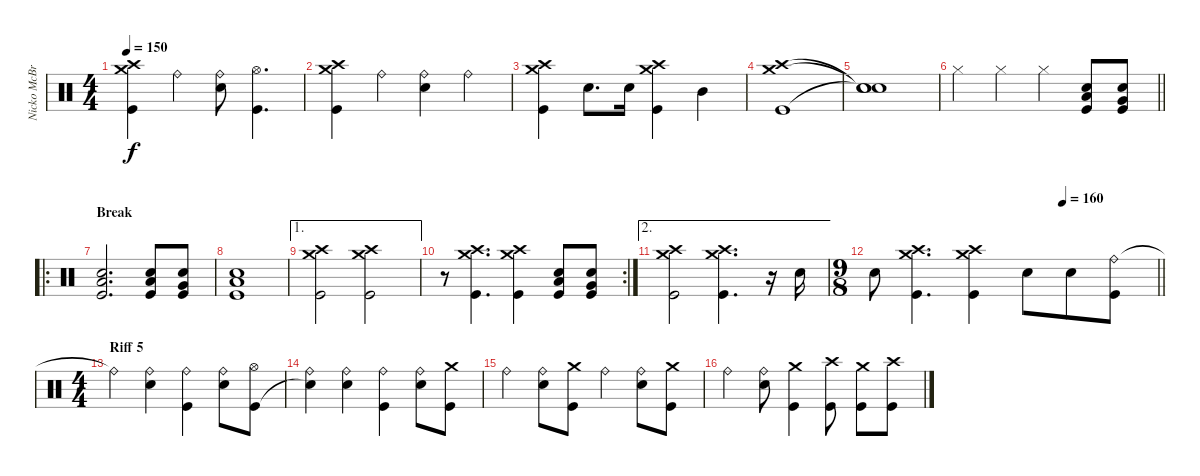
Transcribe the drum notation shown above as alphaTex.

\track ("Nicko McBrain" "Nicko McBr") {instrument percussion}
\staff {score}
\articulation defaults
\ts (4 4)
\tempo 150
\clef neutral
\ks c
("Crash medium (hit)" "Crash high (hit)" "Kick (hit)").4{dy f} "Ride (bell)".4 ("Ride (bell)" "Snare (hit) 2").8 ("Hi-Hat (open)" "Kick (hit)").4{d} |
("Crash medium (hit)" "Crash high (hit)" "Kick (hit)").4 "Ride (bell)".4 ("Ride (bell)" "Snare (hit) 2").4 "Ride (bell)".4 |
("Crash medium (hit)" "Crash high (hit)" "Kick (hit)").4 "Snare (hit) 2".8{d} "Snare (hit) 2".16 ("Crash medium (hit)" "Crash high (hit)" "Kick (hit)").4 "Mid Tom (hit)".4 |
("Crash medium (hit)" "Crash high (hit)" "Kick (hit)").1 |
("Snare (hit)"{t} "Snare (hit)"{t} "Snare (hit)"{t}).1 |
\barLineRight lightlight "Hi-Hat (closed)".4 "Hi-Hat (closed)".4 "Hi-Hat (closed)".4
("Low Floor Tom (hit)" "Snare (hit) 2" "Kick (hit)").8 ("Very Low Tom (hit)" "Snare (hit) 2" "Kick (hit)").8 |
\ro
\section ("" "Break")
("Low Floor Tom (hit)" "Snare (hit) 2" "Kick (hit)").2{d} ("Low Floor Tom (hit)" "Snare (hit) 2" "Kick (hit)").8 ("Very Low Tom (hit)" "Snare (hit) 2" "Kick (hit)").8 |
("Low Floor Tom (hit)" "Snare (hit) 2" "Kick (hit)").1 |
\ae 1
("Crash medium (hit)" "Crash high (hit)" "Kick (hit)").2 ("Crash medium (hit)" "Crash high (hit)" "Kick (hit)").2 |
\rc 2
r.8 ("Crash medium (hit)" "Crash high (hit)" "Kick (hit)").4{d} ("Crash medium (hit)" "Crash high (hit)" "Kick (hit)").4 ("Low Floor Tom (hit)" "Snare (hit) 2" "Kick (hit)").8 ("Very Low Tom (hit)" "Snare (hit) 2" "Kick (hit)").8 |
\ae 2
("Crash medium (hit)" "Crash high (hit)" "Kick (hit)").2 ("Crash medium (hit)" "Crash high (hit)" "Kick (hit)").4{d} r.16 "Snare (hit) 2".16 |
\ts (9 8)
\tempo (160 0.6666666666666666)
\barLineRight lightlight "Snare (hit) 2".8
("Crash medium (hit)" "Crash high (hit)" "Kick (hit)").4{d} ("Crash medium (hit)" "Crash high (hit)" "Kick (hit)").4 "Snare (hit) 2".8 "Snare (hit) 2".8 ("Ride (bell)" "Kick (hit)").8 |
\ts (4 4)
\section ("" "Riff 5")
"Ride (bell)"{t}.4 ("Ride (bell)" "Snare (hit) 2").4 ("Ride (bell)" "Kick (hit)").4 ("Ride (bell)" "Snare (hit) 2").8 ("Hi-Hat (open)" "Kick (hit)").8 |
("Ride (bell)" "Snare (hit)"{t}).4 ("Ride (bell)" "Snare (hit) 2").4 ("Ride (bell)" "Kick (hit)").4 ("Ride (bell)" "Snare (hit) 2").8 ("Crash medium (hit)" "Kick (hit)").8 |
"Ride (bell)".4 ("Ride (bell)" "Snare (hit) 2").8 ("Crash medium (hit)" "Kick (hit)").8 "Ride (bell)".4 ("Ride (bell)" "Snare (hit) 2").8 ("Crash medium (hit)" "Kick (hit)").8 |
"Ride (bell)".4 ("Ride (bell)" "Snare (hit) 2").8 ("Crash medium (hit)" "Kick (hit)").4 ("Crash high (hit)" "Kick (hit)").8 ("Crash medium (hit)" "Kick (hit)").8 ("Crash high (hit)" "Kick (hit)").8
